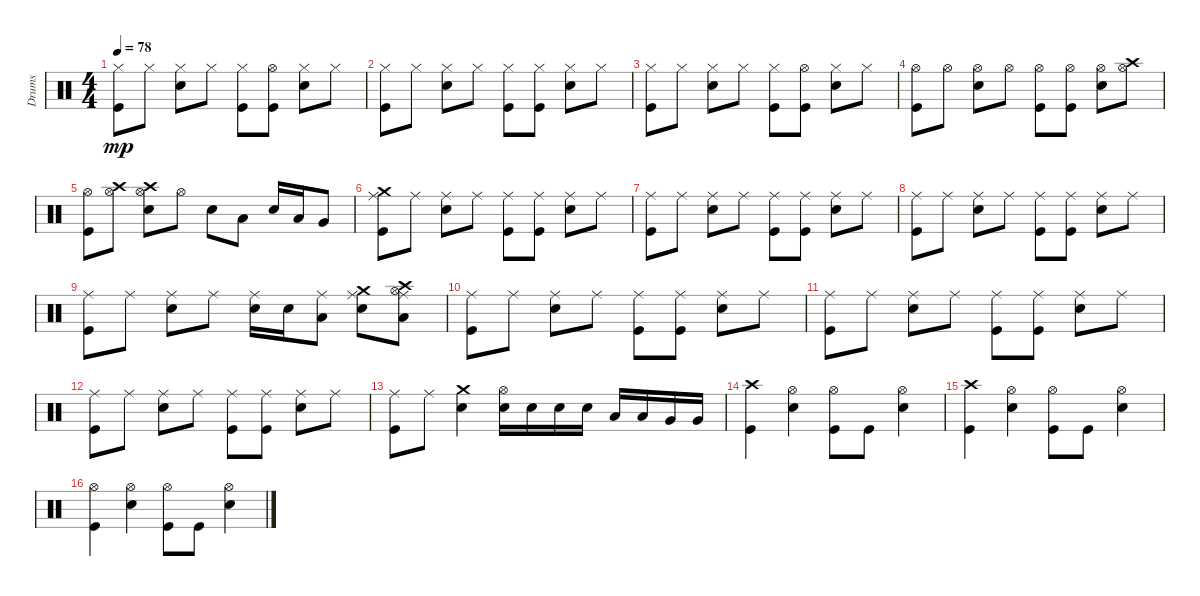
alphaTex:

\track ("Drums" "Drums") {instrument percussion}
\staff {score}
\articulation defaults
\ts (4 4)
\tempo 78
\clef neutral
\ks c
("Kick (hit)" "Hi-Hat (closed)").8{dy mp balance 8} "Hi-Hat (closed)".8 ("Snare (hit) 2" "Hi-Hat (closed)").8 "Hi-Hat (closed)".8 ("Kick (hit)" "Hi-Hat (closed)").8{balance 8} ("Kick (hit)" "Hi-Hat (open)").8{balance 7} ("Snare (hit) 2" "Hi-Hat (closed)").8{balance 8} "Hi-Hat (closed)".8 |
("Kick (hit)" "Hi-Hat (closed)").8{balance 8} "Hi-Hat (closed)".8 ("Snare (hit) 2" "Hi-Hat (closed)").8 "Hi-Hat (closed)".8 ("Kick (hit)" "Hi-Hat (closed)").8{balance 8} ("Kick (hit)" "Hi-Hat (closed)").8{balance 8} ("Snare (hit) 2" "Hi-Hat (closed)").8 "Hi-Hat (closed)".8 |
("Kick (hit)" "Hi-Hat (closed)").8{balance 8} "Hi-Hat (closed)".8 ("Snare (hit) 2" "Hi-Hat (closed)").8 "Hi-Hat (closed)".8 ("Kick (hit)" "Hi-Hat (closed)").8{balance 8} ("Kick (hit)" "Hi-Hat (open)").8{balance 7} ("Snare (hit) 2" "Hi-Hat (closed)").8{balance 8} "Hi-Hat (closed)".8 |
("Kick (hit)" "Hi-Hat (open)").8{balance 7} "Hi-Hat (open)".8 ("Snare (hit) 2" "Hi-Hat (open)").8{balance 7} "Hi-Hat (open)".8 ("Kick (hit)" "Hi-Hat (open)").8{balance 7} ("Kick (hit)" "Hi-Hat (open)").8{balance 7} ("Snare (hit) 2" "Hi-Hat (open)").8{balance 7} ("Hi-Hat (open)" "Crash high (hit)").8{volume 12 balance 8} |
("Kick (hit)" "Hi-Hat (open)").8{volume 16 balance 7} ("Hi-Hat (open)" "Crash high (hit)").8{volume 12 balance 8} ("Snare (hit) 2" "Hi-Hat (open)" "Crash high (hit)").8{volume 12 balance 8} "Hi-Hat (open)".8{volume 16 balance 7} "Snare (hit) 2".8{balance 8} "Low Tom (hit)".8 "Snare (hit) 2".16 "Low Tom (hit)".16 "Very Low Tom (hit)".8 |
("Kick (hit)" "Crash medium (hit)" "Ride (middle)").8{volume 16 balance 7} "Ride (middle)".8 ("Snare (hit) 2" "Ride (middle)").8{balance 7} "Ride (middle)".8 ("Kick (hit)" "Ride (middle)").8{balance 7} ("Kick (hit)" "Ride (middle)").8{balance 7} ("Snare (hit) 2" "Ride (middle)").8{balance 7} "Ride (middle)".8 |
("Kick (hit)" "Ride (middle)").8{balance 7} "Ride (middle)".8 ("Snare (hit) 2" "Ride (middle)").8{balance 7} "Ride (middle)".8 ("Kick (hit)" "Ride (middle)").8{balance 7} ("Kick (hit)" "Ride (middle)").8{balance 7} ("Snare (hit) 2" "Ride (middle)").8{balance 7} "Ride (middle)".8 |
("Kick (hit)" "Ride (middle)").8{balance 7} "Ride (middle)".8 ("Snare (hit) 2" "Ride (middle)").8{balance 7} "Ride (middle)".8 ("Kick (hit)" "Ride (middle)").8{balance 7} ("Kick (hit)" "Ride (middle)").8{balance 7} ("Snare (hit) 2" "Ride (middle)").8{balance 7} "Ride (middle)".8 |
("Kick (hit)" "Ride (middle)").8{balance 7} "Ride (middle)".8 ("Snare (hit) 2" "Ride (middle)").8{balance 7} "Ride (middle)".8 ("Snare (hit) 2" "Ride (middle)").16{balance 7} "Snare (hit) 2".16{balance 8} ("Low Tom (hit)" "Ride (middle)").8{balance 7} ("Snare (hit) 2" "Crash medium (hit)" "Ride (middle)").8{volume 16 balance 7} ("Low Tom (hit)" "Hi-Hat (open)" "Crash high (hit)" "Ride (middle)").8{volume 16 balance 7} |
("Kick (hit)" "Ride (middle)").8{balance 7} "Ride (middle)".8 ("Snare (hit) 2" "Ride (middle)").8{balance 7} "Ride (middle)".8 ("Kick (hit)" "Ride (middle)").8{balance 7} ("Kick (hit)" "Ride (middle)").8{balance 7} ("Snare (hit) 2" "Ride (middle)").8{balance 7} "Ride (middle)".8 |
("Kick (hit)" "Ride (middle)").8{balance 7} "Ride (middle)".8 ("Snare (hit) 2" "Ride (middle)").8{balance 7} "Ride (middle)".8 ("Kick (hit)" "Ride (middle)").8{balance 7} ("Kick (hit)" "Ride (middle)").8{balance 7} ("Snare (hit) 2" "Ride (middle)").8{balance 7} "Ride (middle)".8 |
("Kick (hit)" "Ride (middle)").8{balance 7} "Ride (middle)".8 ("Snare (hit) 2" "Ride (middle)").8{balance 7} "Ride (middle)".8 ("Kick (hit)" "Ride (middle)").8{balance 7} ("Kick (hit)" "Ride (middle)").8{balance 7} ("Snare (hit) 2" "Ride (middle)").8{balance 7} "Ride (middle)".8 |
("Kick (hit)" "Ride (middle)").8{balance 7} "Ride (middle)".8 ("Snare (hit) 2" "Crash medium (hit)").4{volume 14 balance 8} ("Snare (hit) 2" "Hi-Hat (open)").16{volume 16 balance 7} "Snare (hit) 2".16{balance 8} "Snare (hit) 2".16 "Snare (hit) 2".16 "Low Tom (hit)".16 "Low Tom (hit)".16 "Very Low Tom (hit)".16 "Very Low Tom (hit)".16 |
("Kick (hit)" "Crash high (hit)").4{volume 12 balance 8} ("Snare (hit) 2" "Hi-Hat (open)").4{volume 16 balance 8} ("Kick (hit)" "Hi-Hat (open)").8{balance 7} "Kick (hit)".8{balance 8} ("Snare (hit) 2" "Hi-Hat (open)").4{balance 8} |
("Kick (hit)" "Crash high (hit)").4{volume 12 balance 8} ("Snare (hit) 2" "Hi-Hat (open)").4{volume 16 balance 8} ("Kick (hit)" "Hi-Hat (open)").8{balance 7} "Kick (hit)".8{balance 8} ("Snare (hit) 2" "Hi-Hat (open)").4{balance 8} |
("Kick (hit)" "Hi-Hat (open)").4{balance 7} ("Snare (hit) 2" "Hi-Hat (open)").4{balance 7} ("Kick (hit)" "Hi-Hat (open)").8{balance 7} "Kick (hit)".8{balance 8} ("Snare (hit) 2" "Hi-Hat (open)").4{balance 7}
